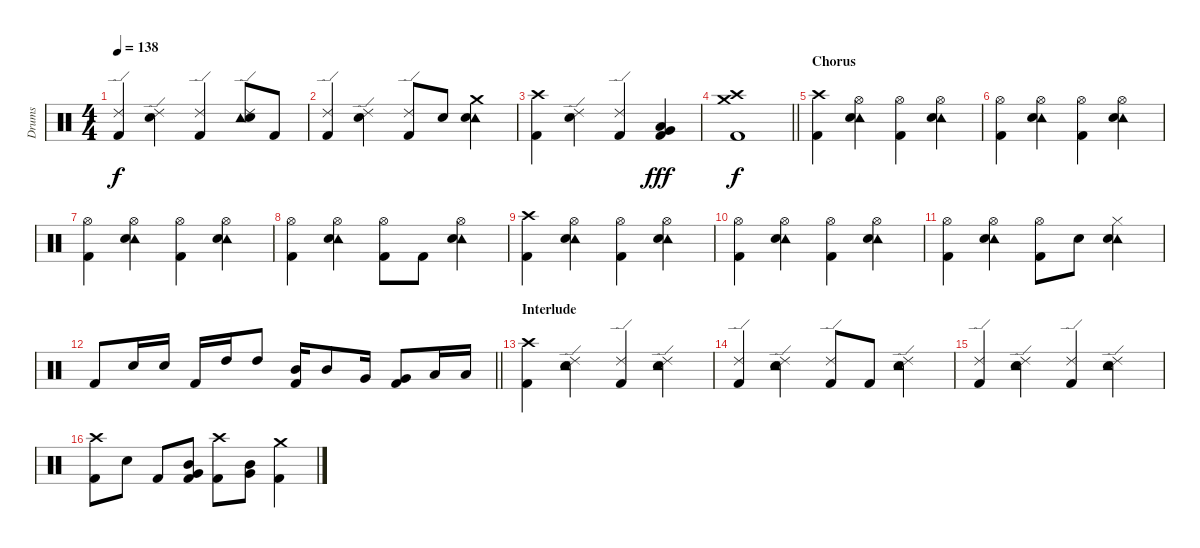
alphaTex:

\track ("Drums" "Drums") {instrument percussion}
\staff {score}
\articulation defaults
\ts (4 4)
\tempo 138
\clef neutral
\ks c
("Ride (edge) 2" "Kick (hit) 2").4{dy f} ("Ride (edge) 2" "Snare (hit) 2").4 ("Ride (edge) 2" "Kick (hit) 2").4 ("Tambourine (hit)" "Ride (edge) 2" "Snare (hit) 2").8 "Kick (hit) 2".8 |
("Ride (edge) 2" "Kick (hit) 2").4 ("Ride (edge) 2" "Snare (hit) 2").4 ("Ride (edge) 2" "Kick (hit) 2").8 "Snare (hit) 2".8 ("Crash medium (hit)" "Tambourine (hit)" "Snare (hit) 2").4 |
("Crash high (hit)" "Kick (hit) 2").4 ("Ride (edge) 2" "Snare (hit) 2").4 ("Ride (edge) 2" "Kick (hit) 2").4 ("Very Low Tom (hit)" "Low Tom (hit)" "Kick (hit) 2").4{dy fff} |
\barLineRight lightlight
("Crash high (hit)" "Crash medium (hit)" "Kick (hit) 2").1{dy f} |
\section ("" "Chorus")
("Crash high (hit)" "Kick (hit) 2").4 ("Tambourine (hit)" "Hi-Hat (open)" "Snare (hit) 2").4 ("Hi-Hat (open)" "Kick (hit) 2").4 ("Tambourine (hit)" "Hi-Hat (open)" "Snare (hit) 2").4 |
("Hi-Hat (open)" "Kick (hit) 2").4 ("Tambourine (hit)" "Hi-Hat (open)" "Snare (hit) 2").4 ("Hi-Hat (open)" "Kick (hit) 2").4 ("Tambourine (hit)" "Hi-Hat (open)" "Snare (hit) 2").4 |
("Hi-Hat (open)" "Kick (hit) 2").4 ("Tambourine (hit)" "Hi-Hat (open)" "Snare (hit) 2").4 ("Hi-Hat (open)" "Kick (hit) 2").4 ("Tambourine (hit)" "Hi-Hat (open)" "Snare (hit) 2").4 |
("Hi-Hat (open)" "Kick (hit) 2").4 ("Tambourine (hit)" "Hi-Hat (open)" "Snare (hit) 2").4 ("Hi-Hat (open)" "Kick (hit) 2").8 "Kick (hit) 2".8 ("Tambourine (hit)" "Hi-Hat (open)" "Snare (hit) 2").4 |
("Crash high (hit)" "Kick (hit) 2").4 ("Tambourine (hit)" "Hi-Hat (open)" "Snare (hit) 2").4 ("Hi-Hat (open)" "Kick (hit) 2").4 ("Tambourine (hit)" "Hi-Hat (open)" "Snare (hit) 2").4 |
("Hi-Hat (open)" "Kick (hit) 2").4 ("Tambourine (hit)" "Hi-Hat (open)" "Snare (hit) 2").4 ("Hi-Hat (open)" "Kick (hit) 2").4 ("Tambourine (hit)" "Hi-Hat (open)" "Snare (hit) 2").4 |
("Hi-Hat (open)" "Kick (hit) 2").4 ("Tambourine (hit)" "Hi-Hat (open)" "Snare (hit) 2").4 ("Hi-Hat (open)" "Kick (hit) 2").8 "Snare (hit) 2".8 ("Tambourine (hit)" "Hi-Hat (closed)" "Snare (hit) 2").4 |
\barLineRight lightlight "Kick (hit) 2".8 "Snare (hit) 2".16 "Snare (hit) 2".16 "Kick (hit) 2".16 "High Tom (hit)".16 "High Tom (hit)".8
("Mid Tom (hit)" "Kick (hit) 2").16 "Mid Tom (hit)".8 "Very Low Tom (hit)".16 ("Very Low Tom (hit)" "Kick (hit) 2").8 "Low Tom (hit)".16 "Low Tom (hit)".16 |
\section ("" "Interlude")
("Crash high (hit)" "Kick (hit) 2").4 ("Tambourine (hit)" "Ride (edge) 2" "Snare (hit) 2").4 ("Ride (edge) 2" "Kick (hit) 2").4 ("Tambourine (hit)" "Ride (edge) 2" "Snare (hit) 2").4 |
("Ride (edge) 2" "Kick (hit) 2").4 ("Tambourine (hit)" "Ride (edge) 2" "Snare (hit) 2").4 ("Ride (edge) 2" "Kick (hit) 2").8 "Kick (hit) 2".8 ("Tambourine (hit)" "Ride (edge) 2" "Snare (hit) 2").4 |
("Ride (edge) 2" "Kick (hit) 2").4 ("Tambourine (hit)" "Ride (edge) 2" "Snare (hit) 2").4 ("Ride (edge) 2" "Kick (hit) 2").4 ("Tambourine (hit)" "Ride (edge) 2" "Snare (hit) 2").4 |
("Crash high (hit)" "Kick (hit) 2").8 "Snare (hit) 2".8 "Kick (hit) 2".8 ("Mid Tom (hit)" "Very Low Tom (hit)" "Kick (hit) 2").8 ("Crash high (hit)" "Kick (hit) 2").8 ("Mid Tom (hit)" "Very Low Tom (hit)").8 ("Crash medium (hit)" "Kick (hit) 2").4
